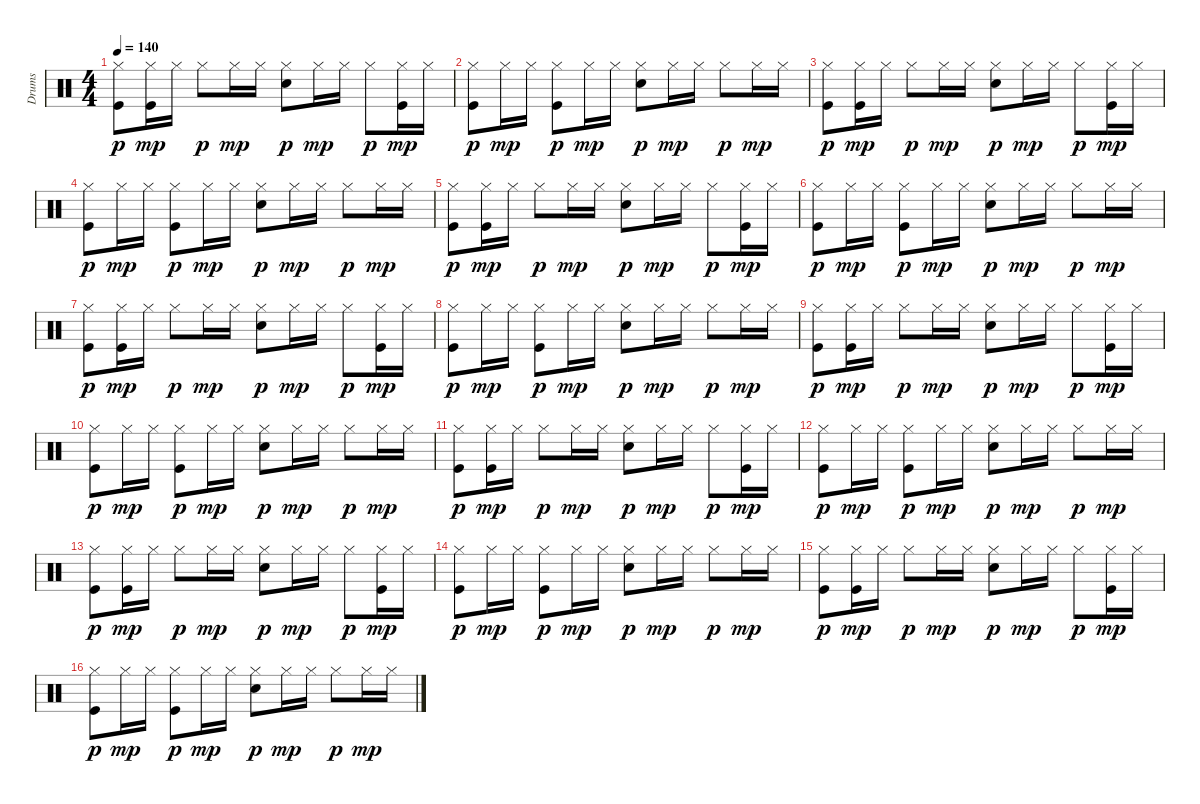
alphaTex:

\track ("Drums" "Drums") {instrument percussion}
\staff {score}
\articulation defaults
\ts (4 4)
\tempo 140
\clef neutral
\ks c
("Kick (hit)" "Hi-Hat (closed)").8{dy p} ("Kick (hit)" "Hi-Hat (closed)").16{dy mp} "Hi-Hat (closed)".16 "Hi-Hat (closed)".8{dy p} "Hi-Hat (closed)".16{dy mp} "Hi-Hat (closed)".16 ("Snare (hit) 2" "Hi-Hat (closed)").8{dy p} "Hi-Hat (closed)".16{dy mp} "Hi-Hat (closed)".16 "Hi-Hat (closed)".8{dy p} ("Kick (hit)" "Hi-Hat (closed)").16{dy mp} "Hi-Hat (closed)".16 |
("Kick (hit)" "Hi-Hat (closed)").8{dy p} "Hi-Hat (closed)".16{dy mp} "Hi-Hat (closed)".16 ("Kick (hit)" "Hi-Hat (closed)").8{dy p} "Hi-Hat (closed)".16{dy mp} "Hi-Hat (closed)".16 ("Snare (hit) 2" "Hi-Hat (closed)").8{dy p} "Hi-Hat (closed)".16{dy mp} "Hi-Hat (closed)".16 "Hi-Hat (closed)".8{dy p} "Hi-Hat (closed)".16{dy mp} "Hi-Hat (closed)".16 |
("Kick (hit)" "Hi-Hat (closed)").8{dy p} ("Kick (hit)" "Hi-Hat (closed)").16{dy mp} "Hi-Hat (closed)".16 "Hi-Hat (closed)".8{dy p} "Hi-Hat (closed)".16{dy mp} "Hi-Hat (closed)".16 ("Snare (hit) 2" "Hi-Hat (closed)").8{dy p} "Hi-Hat (closed)".16{dy mp} "Hi-Hat (closed)".16 "Hi-Hat (closed)".8{dy p} ("Kick (hit)" "Hi-Hat (closed)").16{dy mp} "Hi-Hat (closed)".16 |
("Kick (hit)" "Hi-Hat (closed)").8{dy p} "Hi-Hat (closed)".16{dy mp} "Hi-Hat (closed)".16 ("Kick (hit)" "Hi-Hat (closed)").8{dy p} "Hi-Hat (closed)".16{dy mp} "Hi-Hat (closed)".16 ("Snare (hit) 2" "Hi-Hat (closed)").8{dy p} "Hi-Hat (closed)".16{dy mp} "Hi-Hat (closed)".16 "Hi-Hat (closed)".8{dy p} "Hi-Hat (closed)".16{dy mp} "Hi-Hat (closed)".16 |
("Kick (hit)" "Hi-Hat (closed)").8{dy p} ("Kick (hit)" "Hi-Hat (closed)").16{dy mp} "Hi-Hat (closed)".16 "Hi-Hat (closed)".8{dy p} "Hi-Hat (closed)".16{dy mp} "Hi-Hat (closed)".16 ("Snare (hit) 2" "Hi-Hat (closed)").8{dy p} "Hi-Hat (closed)".16{dy mp} "Hi-Hat (closed)".16 "Hi-Hat (closed)".8{dy p} ("Kick (hit)" "Hi-Hat (closed)").16{dy mp} "Hi-Hat (closed)".16 |
("Kick (hit)" "Hi-Hat (closed)").8{dy p} "Hi-Hat (closed)".16{dy mp} "Hi-Hat (closed)".16 ("Kick (hit)" "Hi-Hat (closed)").8{dy p} "Hi-Hat (closed)".16{dy mp} "Hi-Hat (closed)".16 ("Snare (hit) 2" "Hi-Hat (closed)").8{dy p} "Hi-Hat (closed)".16{dy mp} "Hi-Hat (closed)".16 "Hi-Hat (closed)".8{dy p} "Hi-Hat (closed)".16{dy mp} "Hi-Hat (closed)".16 |
("Kick (hit)" "Hi-Hat (closed)").8{dy p} ("Kick (hit)" "Hi-Hat (closed)").16{dy mp} "Hi-Hat (closed)".16 "Hi-Hat (closed)".8{dy p} "Hi-Hat (closed)".16{dy mp} "Hi-Hat (closed)".16 ("Snare (hit) 2" "Hi-Hat (closed)").8{dy p} "Hi-Hat (closed)".16{dy mp} "Hi-Hat (closed)".16 "Hi-Hat (closed)".8{dy p} ("Kick (hit)" "Hi-Hat (closed)").16{dy mp} "Hi-Hat (closed)".16 |
("Kick (hit)" "Hi-Hat (closed)").8{dy p} "Hi-Hat (closed)".16{dy mp} "Hi-Hat (closed)".16 ("Kick (hit)" "Hi-Hat (closed)").8{dy p} "Hi-Hat (closed)".16{dy mp} "Hi-Hat (closed)".16 ("Snare (hit) 2" "Hi-Hat (closed)").8{dy p} "Hi-Hat (closed)".16{dy mp} "Hi-Hat (closed)".16 "Hi-Hat (closed)".8{dy p} "Hi-Hat (closed)".16{dy mp} "Hi-Hat (closed)".16 |
("Kick (hit)" "Hi-Hat (closed)").8{dy p} ("Kick (hit)" "Hi-Hat (closed)").16{dy mp} "Hi-Hat (closed)".16 "Hi-Hat (closed)".8{dy p} "Hi-Hat (closed)".16{dy mp} "Hi-Hat (closed)".16 ("Snare (hit) 2" "Hi-Hat (closed)").8{dy p} "Hi-Hat (closed)".16{dy mp} "Hi-Hat (closed)".16 "Hi-Hat (closed)".8{dy p} ("Kick (hit)" "Hi-Hat (closed)").16{dy mp} "Hi-Hat (closed)".16 |
("Kick (hit)" "Hi-Hat (closed)").8{dy p} "Hi-Hat (closed)".16{dy mp} "Hi-Hat (closed)".16 ("Kick (hit)" "Hi-Hat (closed)").8{dy p} "Hi-Hat (closed)".16{dy mp} "Hi-Hat (closed)".16 ("Snare (hit) 2" "Hi-Hat (closed)").8{dy p} "Hi-Hat (closed)".16{dy mp} "Hi-Hat (closed)".16 "Hi-Hat (closed)".8{dy p} "Hi-Hat (closed)".16{dy mp} "Hi-Hat (closed)".16 |
("Kick (hit)" "Hi-Hat (closed)").8{dy p} ("Kick (hit)" "Hi-Hat (closed)").16{dy mp} "Hi-Hat (closed)".16 "Hi-Hat (closed)".8{dy p} "Hi-Hat (closed)".16{dy mp} "Hi-Hat (closed)".16 ("Snare (hit) 2" "Hi-Hat (closed)").8{dy p} "Hi-Hat (closed)".16{dy mp} "Hi-Hat (closed)".16 "Hi-Hat (closed)".8{dy p} ("Kick (hit)" "Hi-Hat (closed)").16{dy mp} "Hi-Hat (closed)".16 |
("Kick (hit)" "Hi-Hat (closed)").8{dy p} "Hi-Hat (closed)".16{dy mp} "Hi-Hat (closed)".16 ("Kick (hit)" "Hi-Hat (closed)").8{dy p} "Hi-Hat (closed)".16{dy mp} "Hi-Hat (closed)".16 ("Snare (hit) 2" "Hi-Hat (closed)").8{dy p} "Hi-Hat (closed)".16{dy mp} "Hi-Hat (closed)".16 "Hi-Hat (closed)".8{dy p} "Hi-Hat (closed)".16{dy mp} "Hi-Hat (closed)".16 |
("Kick (hit)" "Hi-Hat (closed)").8{dy p} ("Kick (hit)" "Hi-Hat (closed)").16{dy mp} "Hi-Hat (closed)".16 "Hi-Hat (closed)".8{dy p} "Hi-Hat (closed)".16{dy mp} "Hi-Hat (closed)".16 ("Snare (hit) 2" "Hi-Hat (closed)").8{dy p} "Hi-Hat (closed)".16{dy mp} "Hi-Hat (closed)".16 "Hi-Hat (closed)".8{dy p} ("Kick (hit)" "Hi-Hat (closed)").16{dy mp} "Hi-Hat (closed)".16 |
("Kick (hit)" "Hi-Hat (closed)").8{dy p} "Hi-Hat (closed)".16{dy mp} "Hi-Hat (closed)".16 ("Kick (hit)" "Hi-Hat (closed)").8{dy p} "Hi-Hat (closed)".16{dy mp} "Hi-Hat (closed)".16 ("Snare (hit) 2" "Hi-Hat (closed)").8{dy p} "Hi-Hat (closed)".16{dy mp} "Hi-Hat (closed)".16 "Hi-Hat (closed)".8{dy p} "Hi-Hat (closed)".16{dy mp} "Hi-Hat (closed)".16 |
("Kick (hit)" "Hi-Hat (closed)").8{dy p} ("Kick (hit)" "Hi-Hat (closed)").16{dy mp} "Hi-Hat (closed)".16 "Hi-Hat (closed)".8{dy p} "Hi-Hat (closed)".16{dy mp} "Hi-Hat (closed)".16 ("Snare (hit) 2" "Hi-Hat (closed)").8{dy p} "Hi-Hat (closed)".16{dy mp} "Hi-Hat (closed)".16 "Hi-Hat (closed)".8{dy p} ("Kick (hit)" "Hi-Hat (closed)").16{dy mp} "Hi-Hat (closed)".16 |
("Kick (hit)" "Hi-Hat (closed)").8{dy p} "Hi-Hat (closed)".16{dy mp} "Hi-Hat (closed)".16 ("Kick (hit)" "Hi-Hat (closed)").8{dy p} "Hi-Hat (closed)".16{dy mp} "Hi-Hat (closed)".16 ("Snare (hit) 2" "Hi-Hat (closed)").8{dy p} "Hi-Hat (closed)".16{dy mp} "Hi-Hat (closed)".16 "Hi-Hat (closed)".8{dy p} "Hi-Hat (closed)".16{dy mp} "Hi-Hat (closed)".16
